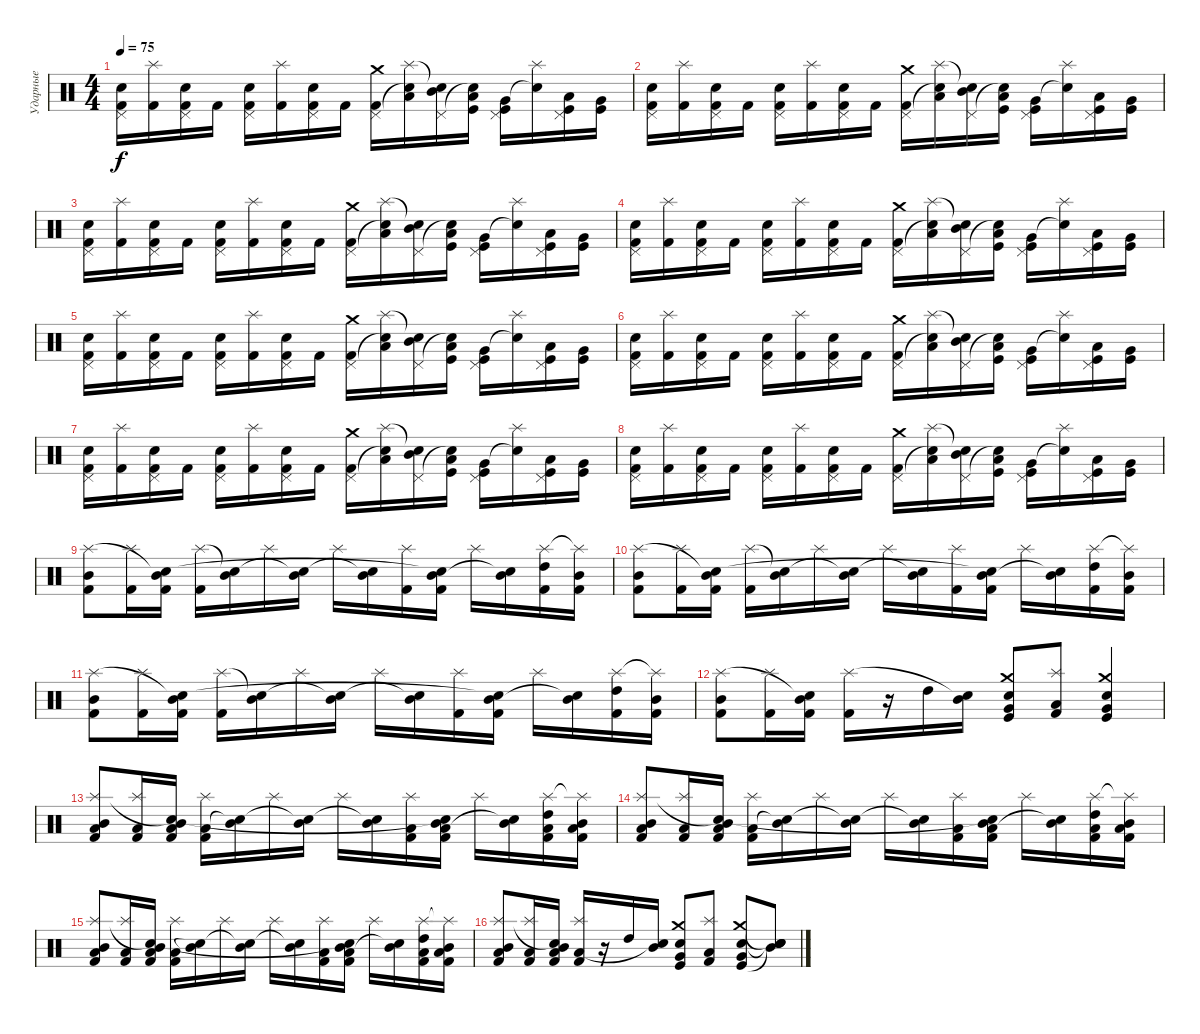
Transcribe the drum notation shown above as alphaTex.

\track ("Ударные" "Ударные") {instrument percussion}
\staff {score}
\articulation defaults
\ts (4 4)
\tempo 75
\clef neutral
\ks c
("Kick (hit) 2" "Electric Snare (hit)" "Pedal Hi-Hat (hit)").16{dy f} ("Kick (hit) 2" "Splash (hit)").16 ("Kick (hit) 2" "Electric Snare (hit)" "Pedal Hi-Hat (hit)").16 "Kick (hit) 2".16 ("Kick (hit) 2" "Electric Snare (hit)" "Pedal Hi-Hat (hit)").16 ("Kick (hit) 2" "Splash (hit)").16 ("Kick (hit) 2" "Electric Snare (hit)" "Pedal Hi-Hat (hit)").16 "Kick (hit) 2".16 ("Kick (hit) 2" "Crash medium (hit)" "Pedal Hi-Hat (hit)").16 ("Low Tom (hit)" "Splash (hit)" "Snare (hit)"{t}).16 ("Mid Tom (hit)" "Snare (hit)"{t} "Pedal Hi-Hat (hit)").16 ("Kick (hit)" "Low Floor Tom (hit)" "Snare (hit)"{t}).16 ("Kick (hit)" "Very Low Tom (hit)" "Pedal Hi-Hat (hit)").16 ("Splash (hit)" "Snare (hit)"{t}).16 ("Kick (hit)" "Low Floor Tom (hit)" "Pedal Hi-Hat (hit)").16 ("Kick (hit)" "Very Low Tom (hit)").16 |
("Kick (hit) 2" "Electric Snare (hit)" "Pedal Hi-Hat (hit)").16 ("Kick (hit) 2" "Splash (hit)").16 ("Kick (hit) 2" "Electric Snare (hit)" "Pedal Hi-Hat (hit)").16 "Kick (hit) 2".16 ("Kick (hit) 2" "Electric Snare (hit)" "Pedal Hi-Hat (hit)").16 ("Kick (hit) 2" "Splash (hit)").16 ("Kick (hit) 2" "Electric Snare (hit)" "Pedal Hi-Hat (hit)").16 "Kick (hit) 2".16 ("Kick (hit) 2" "Crash medium (hit)" "Pedal Hi-Hat (hit)").16 ("Low Tom (hit)" "Splash (hit)" "Snare (hit)"{t}).16 ("Mid Tom (hit)" "Snare (hit)"{t} "Pedal Hi-Hat (hit)").16 ("Kick (hit)" "Low Floor Tom (hit)" "Snare (hit)"{t}).16 ("Kick (hit)" "Very Low Tom (hit)" "Pedal Hi-Hat (hit)").16 ("Splash (hit)" "Snare (hit)"{t}).16 ("Kick (hit)" "Low Floor Tom (hit)" "Pedal Hi-Hat (hit)").16 ("Kick (hit)" "Very Low Tom (hit)").16 |
("Kick (hit) 2" "Electric Snare (hit)" "Pedal Hi-Hat (hit)").16 ("Kick (hit) 2" "Splash (hit)").16 ("Kick (hit) 2" "Electric Snare (hit)" "Pedal Hi-Hat (hit)").16 "Kick (hit) 2".16 ("Kick (hit) 2" "Electric Snare (hit)" "Pedal Hi-Hat (hit)").16 ("Kick (hit) 2" "Splash (hit)").16 ("Kick (hit) 2" "Electric Snare (hit)" "Pedal Hi-Hat (hit)").16 "Kick (hit) 2".16 ("Kick (hit) 2" "Crash medium (hit)" "Pedal Hi-Hat (hit)").16 ("Low Tom (hit)" "Splash (hit)" "Snare (hit)"{t}).16 ("Mid Tom (hit)" "Snare (hit)"{t} "Pedal Hi-Hat (hit)").16 ("Kick (hit)" "Low Floor Tom (hit)" "Snare (hit)"{t}).16 ("Kick (hit)" "Very Low Tom (hit)" "Pedal Hi-Hat (hit)").16 ("Splash (hit)" "Snare (hit)"{t}).16 ("Kick (hit)" "Low Floor Tom (hit)" "Pedal Hi-Hat (hit)").16 ("Kick (hit)" "Very Low Tom (hit)").16 |
("Kick (hit) 2" "Electric Snare (hit)" "Pedal Hi-Hat (hit)").16 ("Kick (hit) 2" "Splash (hit)").16 ("Kick (hit) 2" "Electric Snare (hit)" "Pedal Hi-Hat (hit)").16 "Kick (hit) 2".16 ("Kick (hit) 2" "Electric Snare (hit)" "Pedal Hi-Hat (hit)").16 ("Kick (hit) 2" "Splash (hit)").16 ("Kick (hit) 2" "Electric Snare (hit)" "Pedal Hi-Hat (hit)").16 "Kick (hit) 2".16 ("Kick (hit) 2" "Crash medium (hit)" "Pedal Hi-Hat (hit)").16 ("Low Tom (hit)" "Splash (hit)" "Snare (hit)"{t}).16 ("Mid Tom (hit)" "Snare (hit)"{t} "Pedal Hi-Hat (hit)").16 ("Kick (hit)" "Low Floor Tom (hit)" "Snare (hit)"{t}).16 ("Kick (hit)" "Very Low Tom (hit)" "Pedal Hi-Hat (hit)").16 ("Splash (hit)" "Snare (hit)"{t}).16 ("Kick (hit)" "Low Floor Tom (hit)" "Pedal Hi-Hat (hit)").16 ("Kick (hit)" "Very Low Tom (hit)").16 |
("Kick (hit) 2" "Electric Snare (hit)" "Pedal Hi-Hat (hit)").16 ("Kick (hit) 2" "Splash (hit)").16 ("Kick (hit) 2" "Electric Snare (hit)" "Pedal Hi-Hat (hit)").16 "Kick (hit) 2".16 ("Kick (hit) 2" "Electric Snare (hit)" "Pedal Hi-Hat (hit)").16 ("Kick (hit) 2" "Splash (hit)").16 ("Kick (hit) 2" "Electric Snare (hit)" "Pedal Hi-Hat (hit)").16 "Kick (hit) 2".16 ("Kick (hit) 2" "Crash medium (hit)" "Pedal Hi-Hat (hit)").16 ("Low Tom (hit)" "Splash (hit)" "Snare (hit)"{t}).16 ("Mid Tom (hit)" "Snare (hit)"{t} "Pedal Hi-Hat (hit)").16 ("Kick (hit)" "Low Floor Tom (hit)" "Snare (hit)"{t}).16 ("Kick (hit)" "Very Low Tom (hit)" "Pedal Hi-Hat (hit)").16 ("Splash (hit)" "Snare (hit)"{t}).16 ("Kick (hit)" "Low Floor Tom (hit)" "Pedal Hi-Hat (hit)").16 ("Kick (hit)" "Very Low Tom (hit)").16 |
("Kick (hit) 2" "Electric Snare (hit)" "Pedal Hi-Hat (hit)").16 ("Kick (hit) 2" "Splash (hit)").16 ("Kick (hit) 2" "Electric Snare (hit)" "Pedal Hi-Hat (hit)").16 "Kick (hit) 2".16 ("Kick (hit) 2" "Electric Snare (hit)" "Pedal Hi-Hat (hit)").16 ("Kick (hit) 2" "Splash (hit)").16 ("Kick (hit) 2" "Electric Snare (hit)" "Pedal Hi-Hat (hit)").16 "Kick (hit) 2".16 ("Kick (hit) 2" "Crash medium (hit)" "Pedal Hi-Hat (hit)").16 ("Low Tom (hit)" "Splash (hit)" "Snare (hit)"{t}).16 ("Mid Tom (hit)" "Snare (hit)"{t} "Pedal Hi-Hat (hit)").16 ("Kick (hit)" "Low Floor Tom (hit)" "Snare (hit)"{t}).16 ("Kick (hit)" "Very Low Tom (hit)" "Pedal Hi-Hat (hit)").16 ("Splash (hit)" "Snare (hit)"{t}).16 ("Kick (hit)" "Low Floor Tom (hit)" "Pedal Hi-Hat (hit)").16 ("Kick (hit)" "Very Low Tom (hit)").16 |
("Kick (hit) 2" "Electric Snare (hit)" "Pedal Hi-Hat (hit)").16 ("Kick (hit) 2" "Splash (hit)").16 ("Kick (hit) 2" "Electric Snare (hit)" "Pedal Hi-Hat (hit)").16 "Kick (hit) 2".16 ("Kick (hit) 2" "Electric Snare (hit)" "Pedal Hi-Hat (hit)").16 ("Kick (hit) 2" "Splash (hit)").16 ("Kick (hit) 2" "Electric Snare (hit)" "Pedal Hi-Hat (hit)").16 "Kick (hit) 2".16 ("Kick (hit) 2" "Crash medium (hit)" "Pedal Hi-Hat (hit)").16 ("Low Tom (hit)" "Splash (hit)" "Snare (hit)"{t}).16 ("Mid Tom (hit)" "Snare (hit)"{t} "Pedal Hi-Hat (hit)").16 ("Kick (hit)" "Low Floor Tom (hit)" "Snare (hit)"{t}).16 ("Kick (hit)" "Very Low Tom (hit)" "Pedal Hi-Hat (hit)").16 ("Splash (hit)" "Snare (hit)"{t}).16 ("Kick (hit)" "Low Floor Tom (hit)" "Pedal Hi-Hat (hit)").16 ("Kick (hit)" "Very Low Tom (hit)").16 |
("Kick (hit) 2" "Electric Snare (hit)" "Pedal Hi-Hat (hit)").16 ("Kick (hit) 2" "Splash (hit)").16 ("Kick (hit) 2" "Electric Snare (hit)" "Pedal Hi-Hat (hit)").16 "Kick (hit) 2".16 ("Kick (hit) 2" "Electric Snare (hit)" "Pedal Hi-Hat (hit)").16 ("Kick (hit) 2" "Splash (hit)").16 ("Kick (hit) 2" "Electric Snare (hit)" "Pedal Hi-Hat (hit)").16 "Kick (hit) 2".16 ("Kick (hit) 2" "Crash medium (hit)" "Pedal Hi-Hat (hit)").16 ("Low Tom (hit)" "Splash (hit)" "Snare (hit)"{t}).16 ("Mid Tom (hit)" "Snare (hit)"{t} "Pedal Hi-Hat (hit)").16 ("Kick (hit)" "Low Floor Tom (hit)" "Snare (hit)"{t}).16 ("Kick (hit)" "Very Low Tom (hit)" "Pedal Hi-Hat (hit)").16 ("Splash (hit)" "Snare (hit)"{t}).16 ("Kick (hit)" "Low Floor Tom (hit)" "Pedal Hi-Hat (hit)").16 ("Kick (hit)" "Very Low Tom (hit)").16 |
("Kick (hit) 2" "Mid Tom (hit)" "Splash (hit)").8 ("Kick (hit) 2" "Splash (hit)").16 ("Kick (hit) 2" "Mid Tom (hit)" "Snare (hit)"{t}).16 ("Kick (hit) 2" "Splash (hit)").16 ("Mid Tom (hit)" "Snare (hit)"{t}).16 "Splash (hit)".16 ("Mid Tom (hit)" "Snare (hit)"{t}).16 "Splash (hit)".16 ("Mid Tom (hit)" "Snare (hit)"{t}).16 ("Kick (hit) 2" "Splash (hit)").16 ("Kick (hit) 2" "Mid Tom (hit)" "Snare (hit)"{t}).16 "Splash (hit)".16 ("Mid Tom (hit)" "Snare (hit)"{t}).16 ("Kick (hit) 2" "High Tom (hit)" "Splash (hit)").16 ("Kick (hit) 2" "Mid Tom (hit)" "Splash (hit)"{t}).16 |
("Kick (hit) 2" "Mid Tom (hit)" "Splash (hit)").8 ("Kick (hit) 2" "Splash (hit)").16 ("Kick (hit) 2" "Mid Tom (hit)" "Snare (hit)"{t}).16 ("Kick (hit) 2" "Splash (hit)").16 ("Mid Tom (hit)" "Snare (hit)"{t}).16 "Splash (hit)".16 ("Mid Tom (hit)" "Snare (hit)"{t}).16 "Splash (hit)".16 ("Mid Tom (hit)" "Snare (hit)"{t}).16 ("Kick (hit) 2" "Splash (hit)").16 ("Kick (hit) 2" "Mid Tom (hit)" "Snare (hit)"{t}).16 "Splash (hit)".16 ("Mid Tom (hit)" "Snare (hit)"{t}).16 ("Kick (hit) 2" "High Tom (hit)" "Splash (hit)").16 ("Kick (hit) 2" "Mid Tom (hit)" "Splash (hit)"{t}).16 |
("Kick (hit) 2" "Mid Tom (hit)" "Splash (hit)").8 ("Kick (hit) 2" "Splash (hit)").16 ("Kick (hit) 2" "Mid Tom (hit)" "Snare (hit)"{t}).16 ("Kick (hit) 2" "Splash (hit)").16 ("Mid Tom (hit)" "Snare (hit)"{t}).16 "Splash (hit)".16 ("Mid Tom (hit)" "Snare (hit)"{t}).16 "Splash (hit)".16 ("Mid Tom (hit)" "Snare (hit)"{t}).16 ("Kick (hit) 2" "Splash (hit)").16 ("Kick (hit) 2" "Mid Tom (hit)" "Snare (hit)"{t}).16 "Splash (hit)".16 ("Mid Tom (hit)" "Snare (hit)"{t}).16 ("Kick (hit) 2" "High Tom (hit)" "Splash (hit)").16 ("Kick (hit) 2" "Mid Tom (hit)" "Splash (hit)"{t}).16 |
("Kick (hit) 2" "Mid Tom (hit)" "Splash (hit)").8 ("Kick (hit) 2" "Splash (hit)").16 ("Kick (hit) 2" "Mid Tom (hit)" "Snare (hit)"{t}).16 ("Kick (hit) 2" "Splash (hit)").16 r.16 "High Tom (hit)".16 ("Mid Tom (hit)" "Snare (hit)"{t}).16 ("Kick (hit)" "Very Low Tom (hit)" "Crash medium (hit)" "Electric Snare (hit)").8 ("Kick (hit) 2" "Low Floor Tom (hit)" "Splash (hit)").8 ("Kick (hit)" "Very Low Tom (hit)" "Crash medium (hit)" "Electric Snare (hit)").4 |
("Kick (hit) 2" "Low Tom (hit)" "Mid Tom (hit)" "Splash (hit)").8 ("Kick (hit) 2" "Low Tom (hit)" "Splash (hit)").16 ("Kick (hit) 2" "Low Tom (hit)" "Mid Tom (hit)" "Snare (hit)"{t}).16 ("Kick (hit) 2" "Low Tom (hit)" "Splash (hit)").16 ("Mid Tom (hit)" "Snare (hit)"{t}).16 "Splash (hit)".16 ("Mid Tom (hit)" "Snare (hit)"{t}).16 "Splash (hit)".16 ("Mid Tom (hit)" "Snare (hit)"{t}).16 ("Kick (hit) 2" "Low Tom (hit)" "Splash (hit)").16 ("Kick (hit) 2" "Low Tom (hit)" "Mid Tom (hit)" "Snare (hit)"{t}).16 "Splash (hit)".16 ("Mid Tom (hit)" "Snare (hit)"{t}).16 ("Kick (hit) 2" "Low Tom (hit)" "High Tom (hit)" "Splash (hit)").16 ("Kick (hit) 2" "Low Tom (hit)" "Mid Tom (hit)" "Splash (hit)"{t}).16 |
("Kick (hit) 2" "Low Tom (hit)" "Mid Tom (hit)" "Splash (hit)").8 ("Kick (hit) 2" "Low Tom (hit)" "Splash (hit)").16 ("Kick (hit) 2" "Low Tom (hit)" "Mid Tom (hit)" "Snare (hit)"{t}).16 ("Kick (hit) 2" "Low Tom (hit)" "Splash (hit)").16 ("Mid Tom (hit)" "Snare (hit)"{t}).16 "Splash (hit)".16 ("Mid Tom (hit)" "Snare (hit)"{t}).16 "Splash (hit)".16 ("Mid Tom (hit)" "Snare (hit)"{t}).16 ("Kick (hit) 2" "Low Tom (hit)" "Splash (hit)").16 ("Kick (hit) 2" "Low Tom (hit)" "Mid Tom (hit)" "Snare (hit)"{t}).16 "Splash (hit)".16 ("Mid Tom (hit)" "Snare (hit)"{t}).16 ("Kick (hit) 2" "Low Tom (hit)" "High Tom (hit)" "Splash (hit)").16 ("Kick (hit) 2" "Low Tom (hit)" "Mid Tom (hit)" "Splash (hit)"{t}).16 |
("Kick (hit) 2" "Low Tom (hit)" "Mid Tom (hit)" "Splash (hit)").8 ("Kick (hit) 2" "Low Tom (hit)" "Splash (hit)").16 ("Kick (hit) 2" "Low Tom (hit)" "Mid Tom (hit)" "Snare (hit)"{t}).16 ("Kick (hit) 2" "Low Tom (hit)" "Splash (hit)").16 ("Mid Tom (hit)" "Snare (hit)"{t}).16 "Splash (hit)".16 ("Mid Tom (hit)" "Snare (hit)"{t}).16 "Splash (hit)".16 ("Mid Tom (hit)" "Snare (hit)"{t}).16 ("Kick (hit) 2" "Low Tom (hit)" "Splash (hit)").16 ("Kick (hit) 2" "Low Tom (hit)" "Mid Tom (hit)" "Snare (hit)"{t}).16 "Splash (hit)".16 ("Mid Tom (hit)" "Snare (hit)"{t}).16 ("Kick (hit) 2" "Low Tom (hit)" "High Tom (hit)" "Splash (hit)").16 ("Kick (hit) 2" "Low Tom (hit)" "Mid Tom (hit)" "Splash (hit)"{t}).16 |
("Kick (hit) 2" "Low Tom (hit)" "Mid Tom (hit)" "Splash (hit)").8 ("Kick (hit) 2" "Low Tom (hit)" "Splash (hit)").16 ("Kick (hit) 2" "Low Tom (hit)" "Mid Tom (hit)" "Snare (hit)"{t}).16 ("Kick (hit) 2" "Low Tom (hit)" "Splash (hit)").16 r.16 "High Tom (hit)".16 ("Mid Tom (hit)" "Snare (hit)"{t}).16 ("Kick (hit)" "Very Low Tom (hit)" "Crash medium (hit)" "Electric Snare (hit)").8 ("Kick (hit) 2" "Low Floor Tom (hit)" "Splash (hit)").8 ("Kick (hit)" "Very Low Tom (hit)" "Crash medium (hit)" "Electric Snare (hit)").8 ("Snare (hit)"{t} "Mid Tom (hit)" "Snare (hit)"{t} "Snare (hit)"{t}).8
